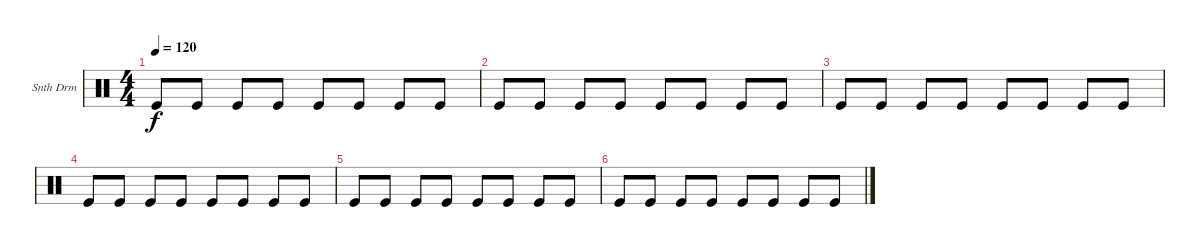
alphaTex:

\defaultSystemsLayout 4
\bracketExtendMode groupsimilarinstruments
\firstSystemTrackNameOrientation horizontal
\otherSystemsTrackNameOrientation horizontal
\track ("Synth Drum" "Snth Drm") {instrument percussion}
\staff {score}
\articulation defaults
\ts (4 4)
\tempo 120
\clef neutral
\scale
0.333333
\ks c "Kick (hit)".8{dy f} "Kick (hit)".8 "Kick (hit)".8 "Kick (hit)".8 "Kick (hit)".8 "Kick (hit)".8 "Kick (hit)".8 "Kick (hit)".8
|
\scale
0.333333 "Kick (hit)".8 "Kick (hit)".8 "Kick (hit)".8 "Kick (hit)".8 "Kick (hit)".8 "Kick (hit)".8 "Kick (hit)".8 "Kick (hit)".8 |
\scale
0.333333 "Kick (hit)".8 "Kick (hit)".8 "Kick (hit)".8 "Kick (hit)".8 "Kick (hit)".8 "Kick (hit)".8 "Kick (hit)".8 "Kick (hit)".8 |
\scale
0.333333 "Kick (hit)".8 "Kick (hit)".8 "Kick (hit)".8 "Kick (hit)".8 "Kick (hit)".8 "Kick (hit)".8 "Kick (hit)".8 "Kick (hit)".8 |
\scale
0.333333 "Kick (hit)".8 "Kick (hit)".8 "Kick (hit)".8 "Kick (hit)".8 "Kick (hit)".8 "Kick (hit)".8 "Kick (hit)".8 "Kick (hit)".8 |
\scale
0.333333 "Kick (hit)".8 "Kick (hit)".8 "Kick (hit)".8 "Kick (hit)".8 "Kick (hit)".8 "Kick (hit)".8 "Kick (hit)".8 "Kick (hit)".8 |
\scale
0.333333
